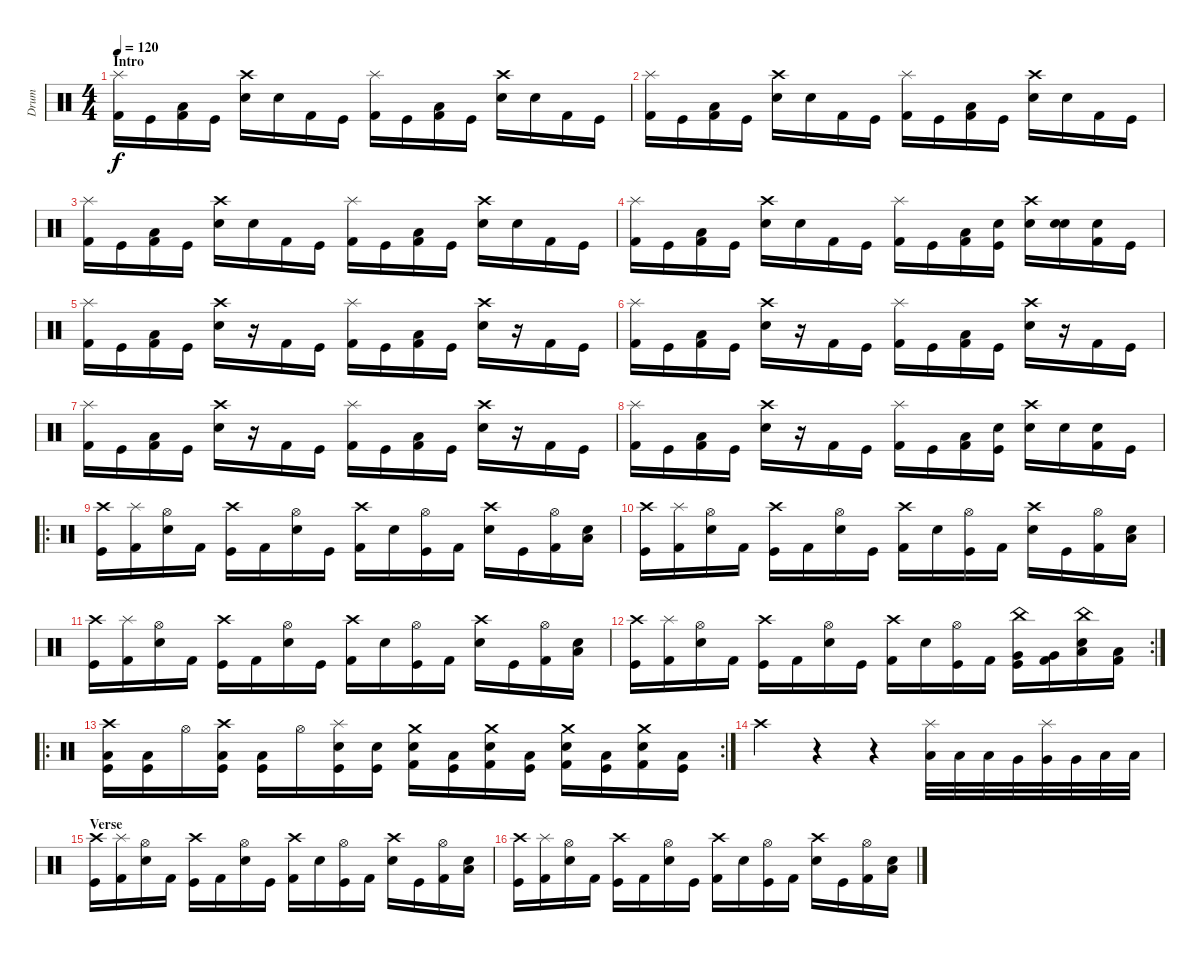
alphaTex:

\track ("Drum" "Drum") {instrument percussion}
\staff {score}
\articulation defaults
\ts (4 4)
\section ("" "Intro")
\tempo 120
\clef neutral
\ks c
("Splash (hit)" "Kick (hit) 2").16{dy f} "Kick (hit)".16 ("Low Floor Tom (hit)" "Kick (hit) 2").16 "Kick (hit)".16 ("Crash high (hit)" "Electric Snare (hit)").16 "Snare (hit) 2".16 "Kick (hit) 2".16 "Kick (hit)".16 ("Splash (hit)" "Kick (hit) 2").16 "Kick (hit)".16 ("Low Floor Tom (hit)" "Kick (hit) 2").16 "Kick (hit)".16 ("Crash high (hit)" "Electric Snare (hit)").16 "Snare (hit) 2".16 "Kick (hit) 2".16 "Kick (hit)".16 |
("Splash (hit)" "Kick (hit) 2").16 "Kick (hit)".16 ("Low Floor Tom (hit)" "Kick (hit) 2").16 "Kick (hit)".16 ("Crash high (hit)" "Electric Snare (hit)").16 "Snare (hit) 2".16 "Kick (hit) 2".16 "Kick (hit)".16 ("Splash (hit)" "Kick (hit) 2").16 "Kick (hit)".16 ("Low Floor Tom (hit)" "Kick (hit) 2").16 "Kick (hit)".16 ("Crash high (hit)" "Electric Snare (hit)").16 "Snare (hit) 2".16 "Kick (hit) 2".16 "Kick (hit)".16 |
("Splash (hit)" "Kick (hit) 2").16 "Kick (hit)".16 ("Low Floor Tom (hit)" "Kick (hit) 2").16 "Kick (hit)".16 ("Crash high (hit)" "Electric Snare (hit)").16 "Snare (hit) 2".16 "Kick (hit) 2".16 "Kick (hit)".16 ("Splash (hit)" "Kick (hit) 2").16 "Kick (hit)".16 ("Low Floor Tom (hit)" "Kick (hit) 2").16 "Kick (hit)".16 ("Crash high (hit)" "Electric Snare (hit)").16 "Snare (hit) 2".16 "Kick (hit) 2".16 "Kick (hit)".16 |
("Splash (hit)" "Kick (hit) 2").16 "Kick (hit)".16 ("Low Floor Tom (hit)" "Kick (hit) 2").16 "Kick (hit)".16 ("Crash high (hit)" "Electric Snare (hit)").16 "Snare (hit) 2".16 "Kick (hit) 2".16 "Kick (hit)".16 ("Splash (hit)" "Kick (hit) 2").16 "Kick (hit)".16 ("Low Floor Tom (hit)" "Kick (hit) 2").16 ("Snare (hit) 2" "Kick (hit)").16 ("Crash high (hit)" "Snare (hit) 2").16 ("Snare (hit) 2" "Snare (hit) 2").16 ("Snare (hit) 2" "Kick (hit) 2").16 "Kick (hit)".16 |
("Splash (hit)" "Kick (hit) 2").16 "Kick (hit)".16 ("Low Floor Tom (hit)" "Kick (hit) 2").16 "Kick (hit)".16 ("Crash high (hit)" "Electric Snare (hit)").16 r.16 "Kick (hit) 2".16 "Kick (hit)".16 ("Splash (hit)" "Kick (hit) 2").16 "Kick (hit)".16 ("Low Floor Tom (hit)" "Kick (hit) 2").16 "Kick (hit)".16 ("Crash high (hit)" "Electric Snare (hit)").16 r.16 "Kick (hit) 2".16 "Kick (hit)".16 |
("Splash (hit)" "Kick (hit) 2").16 "Kick (hit)".16 ("Low Floor Tom (hit)" "Kick (hit) 2").16 "Kick (hit)".16 ("Crash high (hit)" "Electric Snare (hit)").16 r.16 "Kick (hit) 2".16 "Kick (hit)".16 ("Splash (hit)" "Kick (hit) 2").16 "Kick (hit)".16 ("Low Floor Tom (hit)" "Kick (hit) 2").16 "Kick (hit)".16 ("Crash high (hit)" "Electric Snare (hit)").16 r.16 "Kick (hit) 2".16 "Kick (hit)".16 |
("Splash (hit)" "Kick (hit) 2").16 "Kick (hit)".16 ("Low Floor Tom (hit)" "Kick (hit) 2").16 "Kick (hit)".16 ("Crash high (hit)" "Electric Snare (hit)").16 r.16 "Kick (hit) 2".16 "Kick (hit)".16 ("Splash (hit)" "Kick (hit) 2").16 "Kick (hit)".16 ("Low Floor Tom (hit)" "Kick (hit) 2").16 "Kick (hit)".16 ("Crash high (hit)" "Electric Snare (hit)").16 r.16 "Kick (hit) 2".16 "Kick (hit)".16 |
("Splash (hit)" "Kick (hit) 2").16 "Kick (hit)".16 ("Low Floor Tom (hit)" "Kick (hit) 2").16 "Kick (hit)".16 ("Crash high (hit)" "Electric Snare (hit)").16 r.16 "Kick (hit) 2".16 "Kick (hit)".16 ("Splash (hit)" "Kick (hit) 2").16 "Kick (hit)".16 ("Low Floor Tom (hit)" "Kick (hit) 2").16 ("Snare (hit) 2" "Kick (hit)").16 ("Crash high (hit)" "Snare (hit) 2").16 "Snare (hit) 2".16 ("Snare (hit) 2" "Kick (hit) 2").16 "Kick (hit)".16 |
\ro
("Crash high (hit)" "Kick (hit)").16 ("Splash (hit)" "Kick (hit) 2").16 ("Hi-Hat (open)" "Snare (hit) 2").16 "Kick (hit) 2".16 ("Crash high (hit)" "Kick (hit)").16 "Kick (hit) 2".16 ("Hi-Hat (open)" "Snare (hit) 2").16 "Kick (hit)".16 ("Crash high (hit)" "Kick (hit) 2").16 "Snare (hit) 2".16 ("Hi-Hat (open)" "Kick (hit)").16 "Kick (hit) 2".16 ("Crash high (hit)" "Snare (hit) 2").16 "Kick (hit)".16 ("Hi-Hat (open)" "Kick (hit) 2").16 ("Low Tom (hit)" "Snare (hit) 2").16 |
("Crash high (hit)" "Kick (hit)").16 ("Splash (hit)" "Kick (hit) 2").16 ("Hi-Hat (open)" "Snare (hit) 2").16 "Kick (hit) 2".16 ("Crash high (hit)" "Kick (hit)").16 "Kick (hit) 2".16 ("Hi-Hat (open)" "Snare (hit) 2").16 "Kick (hit)".16 ("Crash high (hit)" "Kick (hit) 2").16 "Snare (hit) 2".16 ("Hi-Hat (open)" "Kick (hit)").16 "Kick (hit) 2".16 ("Crash high (hit)" "Snare (hit) 2").16 "Kick (hit)".16 ("Hi-Hat (open)" "Kick (hit) 2").16 ("Low Tom (hit)" "Snare (hit) 2").16 |
("Crash high (hit)" "Kick (hit)").16 ("Splash (hit)" "Kick (hit) 2").16 ("Hi-Hat (open)" "Snare (hit) 2").16 "Kick (hit) 2".16 ("Crash high (hit)" "Kick (hit)").16 "Kick (hit) 2".16 ("Hi-Hat (open)" "Snare (hit) 2").16 "Kick (hit)".16 ("Crash high (hit)" "Kick (hit) 2").16 "Snare (hit) 2".16 ("Hi-Hat (open)" "Kick (hit)").16 "Kick (hit) 2".16 ("Crash high (hit)" "Snare (hit) 2").16 "Kick (hit)".16 ("Hi-Hat (open)" "Kick (hit) 2").16 ("Low Tom (hit)" "Snare (hit) 2").16 |
\rc 2
("Crash high (hit)" "Kick (hit)").16 ("Splash (hit)" "Kick (hit) 2").16 ("Hi-Hat (open)" "Snare (hit) 2").16 "Kick (hit) 2".16 ("Crash high (hit)" "Kick (hit)").16 "Kick (hit) 2".16 ("Hi-Hat (open)" "Snare (hit) 2").16 "Kick (hit)".16 ("Crash high (hit)" "Kick (hit) 2").16 "Snare (hit) 2".16 ("Hi-Hat (open)" "Kick (hit)").16 "Kick (hit) 2".16 ("China (hit)" "Very Low Tom (hit)" "Kick (hit)").16 ("Very Low Tom (hit)" "Kick (hit) 2").16 ("China (hit)" "Low Floor Tom (hit)" "Snare (hit) 2").16 ("Low Floor Tom (hit)" "Kick (hit) 2").16 |
\ro
\rc 2
("Crash high (hit)" "Low Tom (hit)" "Kick (hit)").16 ("Low Floor Tom (hit)" "Kick (hit)").16 "Hi-Hat (open)".16 ("Crash high (hit)" "Low Tom (hit)" "Kick (hit)").16 ("Low Floor Tom (hit)" "Kick (hit)").16 "Hi-Hat (open)".16 ("Splash (hit)" "Electric Snare (hit)" "Kick (hit)").16 ("Electric Snare (hit)" "Kick (hit)").16 ("Crash medium (hit)" "Snare (hit) 2" "Kick (hit) 2").16 ("Low Floor Tom (hit)" "Kick (hit)").16 ("Crash medium (hit)" "Snare (hit) 2" "Kick (hit) 2").16 ("Low Floor Tom (hit)" "Kick (hit)").16 ("Crash medium (hit)" "Snare (hit) 2" "Kick (hit) 2").16 ("Low Floor Tom (hit)" "Kick (hit)").16 ("Crash medium (hit)" "Snare (hit) 2" "Kick (hit) 2").16 ("Low Floor Tom (hit)" "Kick (hit)").16 |
"Crash high (hit)".4 r.4 r.4 ("Splash (hit)" "Low Tom (hit)").32 "Low Tom (hit)".32 "Low Tom (hit)".32 "Very Low Tom (hit)".32 ("Splash (hit)" "Very Low Tom (hit)").32 "Very Low Tom (hit)".32 "Low Floor Tom (hit)".32 "Low Floor Tom (hit)".32 |
\section ("" "Verse")
("Crash high (hit)" "Kick (hit)").16 ("Splash (hit)" "Kick (hit) 2").16 ("Hi-Hat (open)" "Snare (hit) 2").16 "Kick (hit) 2".16 ("Crash high (hit)" "Kick (hit)").16 "Kick (hit) 2".16 ("Hi-Hat (open)" "Snare (hit) 2").16 "Kick (hit)".16 ("Crash high (hit)" "Kick (hit) 2").16 "Snare (hit) 2".16 ("Hi-Hat (open)" "Kick (hit)").16 "Kick (hit) 2".16 ("Crash high (hit)" "Snare (hit) 2").16 "Kick (hit)".16 ("Hi-Hat (open)" "Kick (hit) 2").16 ("Low Tom (hit)" "Snare (hit) 2").16 |
("Crash high (hit)" "Kick (hit)").16 ("Splash (hit)" "Kick (hit) 2").16 ("Hi-Hat (open)" "Snare (hit) 2").16 "Kick (hit) 2".16 ("Crash high (hit)" "Kick (hit)").16 "Kick (hit) 2".16 ("Hi-Hat (open)" "Snare (hit) 2").16 "Kick (hit)".16 ("Crash high (hit)" "Kick (hit) 2").16 "Snare (hit) 2".16 ("Hi-Hat (open)" "Kick (hit)").16 "Kick (hit) 2".16 ("Crash high (hit)" "Snare (hit) 2").16 "Kick (hit)".16 ("Hi-Hat (open)" "Kick (hit) 2").16 ("Low Tom (hit)" "Snare (hit) 2").16
